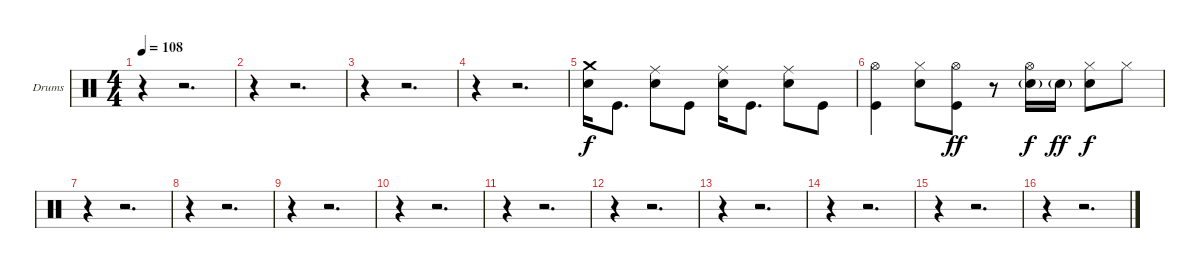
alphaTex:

\bracketExtendMode groupsimilarinstruments
\firstSystemTrackNameOrientation horizontal
\otherSystemsTrackNameOrientation horizontal
\track ("Drumkit" "Drums") {instrument percussion}
\staff {score}
\articulation defaults
\ts (4 4)
\tempo 108
\clef neutral
\ks c
r.4{dy f} r.2{d} |
r.4 r.2{d} |
r.4 r.2{d} |
r.4 r.2{d} |
("Crash medium (hit)" "Snare (hit) 2").16 "Kick (hit)".8{d} ("Ride (middle)" "Snare (hit) 2").8 "Kick (hit)".8 ("Ride (middle)" "Snare (hit) 2").16 "Kick (hit)".8{d} ("Ride (middle)" "Snare (hit) 2").8 "Kick (hit)".8 |
("Hi-Hat (open)" "Kick (hit)").4 ("Hi-Hat (closed)" "Snare (hit) 2").8 ("Hi-Hat (open)" "Kick (hit)").8{dy ff} r.8 ("Hi-Hat (open)" "Snare (hit) 2"{g}).16{dy f} "Snare (hit) 2"{g}.16{dy ff} ("Hi-Hat (closed)" "Snare (hit) 2").8{dy f} "Hi-Hat (closed)".8 |
r.4 r.2{d} |
r.4 r.2{d} |
r.4 r.2{d} |
r.4 r.2{d} |
r.4 r.2{d} |
r.4 r.2{d} |
r.4 r.2{d} |
r.4 r.2{d} |
r.4 r.2{d} |
r.4 r.2{d}
